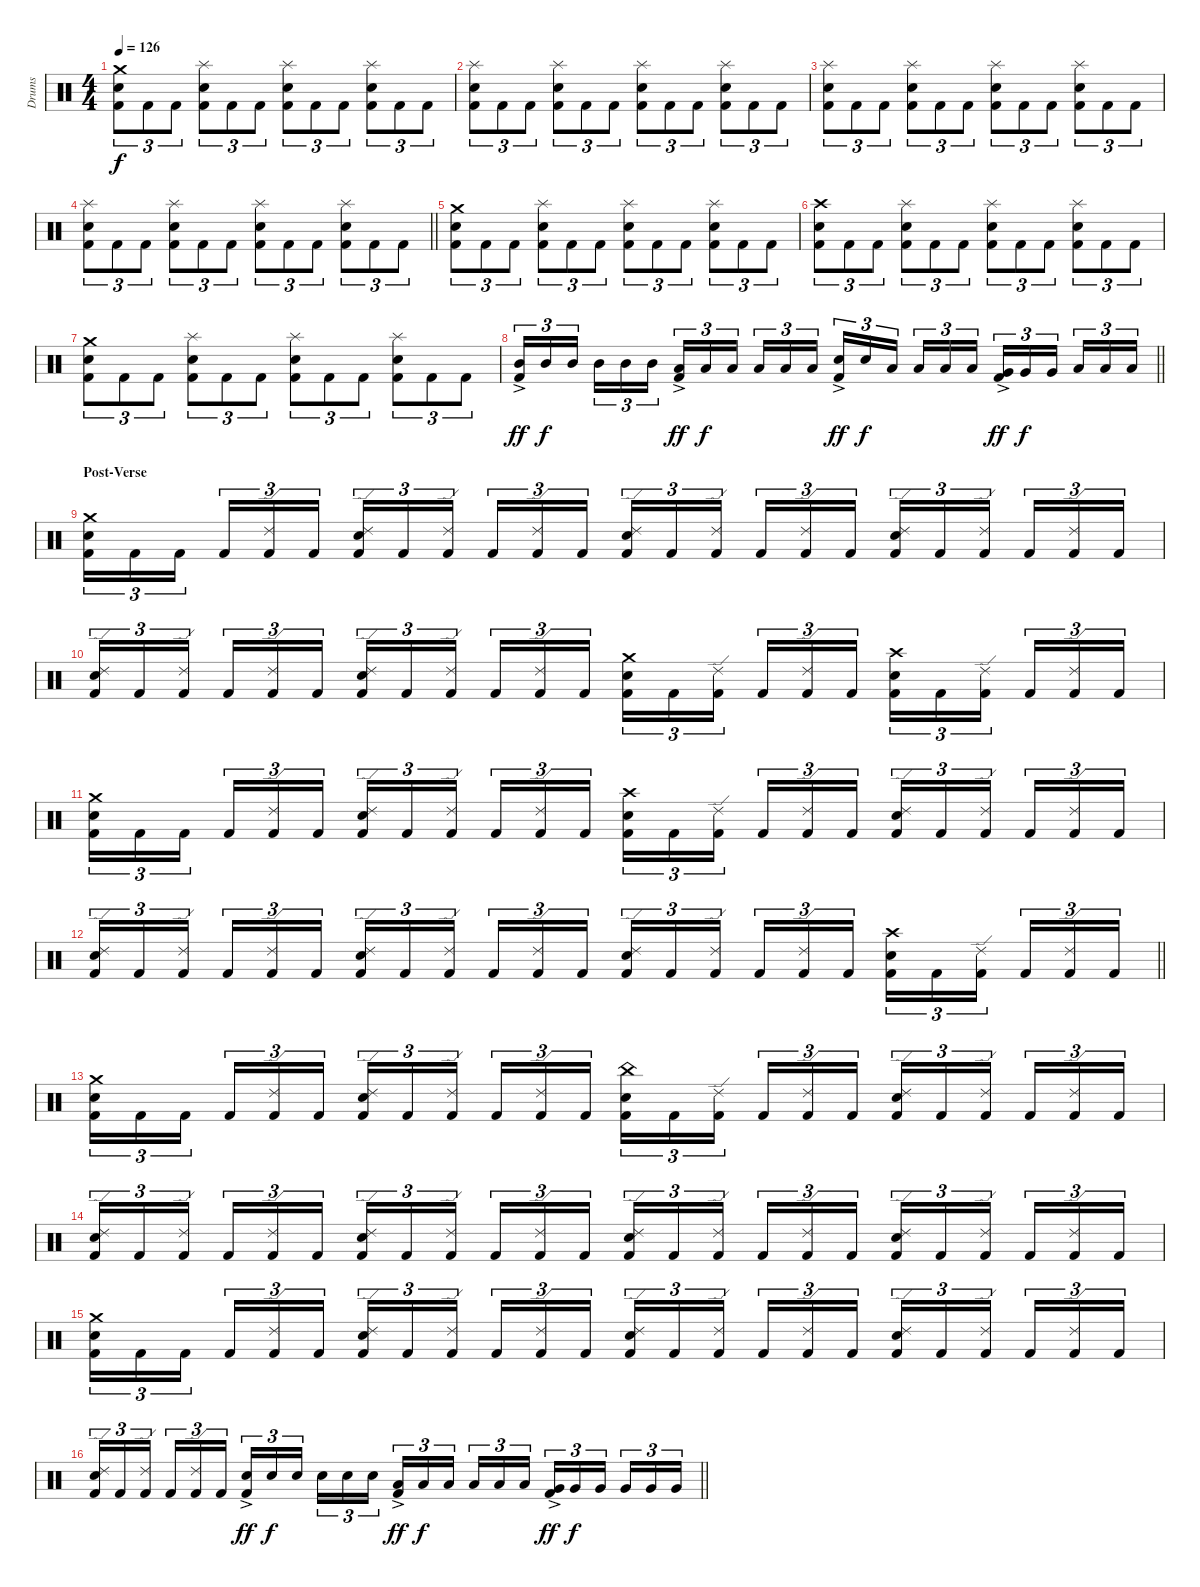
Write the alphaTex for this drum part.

\track ("Drums" "Drums") {instrument percussion}
\staff {score}
\articulation defaults
\ts (4 4)
\section ("" "")
\tempo 126
\clef neutral
\ks c
("Kick (hit) 2" "Snare (hit) 2" "Crash medium (hit)").8{tu (3 2) dy f} "Kick (hit) 2".8{tu (3 2)} "Kick (hit) 2".8{tu (3 2)} ("Kick (hit) 2" "Snare (hit) 2" "Splash (hit)").8{tu (3 2)} "Kick (hit) 2".8{tu (3 2)} "Kick (hit) 2".8{tu (3 2)} ("Kick (hit) 2" "Snare (hit) 2" "Splash (hit)").8{tu (3 2)} "Kick (hit) 2".8{tu (3 2)} "Kick (hit) 2".8{tu (3 2)} ("Kick (hit) 2" "Snare (hit) 2" "Splash (hit)").8{tu (3 2)} "Kick (hit) 2".8{tu (3 2)} "Kick (hit) 2".8{tu (3 2)} |
("Kick (hit) 2" "Snare (hit) 2" "Splash (hit)").8{tu (3 2)} "Kick (hit) 2".8{tu (3 2)} "Kick (hit) 2".8{tu (3 2)} ("Kick (hit) 2" "Snare (hit) 2" "Splash (hit)").8{tu (3 2)} "Kick (hit) 2".8{tu (3 2)} "Kick (hit) 2".8{tu (3 2)} ("Kick (hit) 2" "Snare (hit) 2" "Splash (hit)").8{tu (3 2)} "Kick (hit) 2".8{tu (3 2)} "Kick (hit) 2".8{tu (3 2)} ("Kick (hit) 2" "Snare (hit) 2" "Splash (hit)").8{tu (3 2)} "Kick (hit) 2".8{tu (3 2)} "Kick (hit) 2".8{tu (3 2)} |
("Kick (hit) 2" "Snare (hit) 2" "Splash (hit)").8{tu (3 2)} "Kick (hit) 2".8{tu (3 2)} "Kick (hit) 2".8{tu (3 2)} ("Kick (hit) 2" "Snare (hit) 2" "Splash (hit)").8{tu (3 2)} "Kick (hit) 2".8{tu (3 2)} "Kick (hit) 2".8{tu (3 2)} ("Kick (hit) 2" "Snare (hit) 2" "Splash (hit)").8{tu (3 2)} "Kick (hit) 2".8{tu (3 2)} "Kick (hit) 2".8{tu (3 2)} ("Kick (hit) 2" "Snare (hit) 2" "Splash (hit)").8{tu (3 2)} "Kick (hit) 2".8{tu (3 2)} "Kick (hit) 2".8{tu (3 2)} |
\barLineRight lightlight
("Kick (hit) 2" "Snare (hit) 2" "Splash (hit)").8{tu (3 2)} "Kick (hit) 2".8{tu (3 2)} "Kick (hit) 2".8{tu (3 2)} ("Kick (hit) 2" "Snare (hit) 2" "Splash (hit)").8{tu (3 2)} "Kick (hit) 2".8{tu (3 2)} "Kick (hit) 2".8{tu (3 2)} ("Kick (hit) 2" "Snare (hit) 2" "Splash (hit)").8{tu (3 2)} "Kick (hit) 2".8{tu (3 2)} "Kick (hit) 2".8{tu (3 2)} ("Kick (hit) 2" "Snare (hit) 2" "Splash (hit)").8{tu (3 2)} "Kick (hit) 2".8{tu (3 2)} "Kick (hit) 2".8{tu (3 2)} |
\section ("" "")
("Kick (hit) 2" "Snare (hit) 2" "Crash medium (hit)").8{tu (3 2)} "Kick (hit) 2".8{tu (3 2)} "Kick (hit) 2".8{tu (3 2)} ("Kick (hit) 2" "Snare (hit) 2" "Splash (hit)").8{tu (3 2)} "Kick (hit) 2".8{tu (3 2)} "Kick (hit) 2".8{tu (3 2)} ("Kick (hit) 2" "Snare (hit) 2" "Splash (hit)").8{tu (3 2)} "Kick (hit) 2".8{tu (3 2)} "Kick (hit) 2".8{tu (3 2)} ("Kick (hit) 2" "Snare (hit) 2" "Splash (hit)").8{tu (3 2)} "Kick (hit) 2".8{tu (3 2)} "Kick (hit) 2".8{tu (3 2)} |
("Kick (hit) 2" "Snare (hit) 2" "Crash high (hit)").8{tu (3 2)} "Kick (hit) 2".8{tu (3 2)} "Kick (hit) 2".8{tu (3 2)} ("Kick (hit) 2" "Snare (hit) 2" "Splash (hit)").8{tu (3 2)} "Kick (hit) 2".8{tu (3 2)} "Kick (hit) 2".8{tu (3 2)} ("Kick (hit) 2" "Snare (hit) 2" "Splash (hit)").8{tu (3 2)} "Kick (hit) 2".8{tu (3 2)} "Kick (hit) 2".8{tu (3 2)} ("Kick (hit) 2" "Snare (hit) 2" "Splash (hit)").8{tu (3 2)} "Kick (hit) 2".8{tu (3 2)} "Kick (hit) 2".8{tu (3 2)} |
("Kick (hit) 2" "Snare (hit) 2" "Crash medium (hit)").8{tu (3 2)} "Kick (hit) 2".8{tu (3 2)} "Kick (hit) 2".8{tu (3 2)} ("Kick (hit) 2" "Snare (hit) 2" "Splash (hit)").8{tu (3 2)} "Kick (hit) 2".8{tu (3 2)} "Kick (hit) 2".8{tu (3 2)} ("Kick (hit) 2" "Snare (hit) 2" "Splash (hit)").8{tu (3 2)} "Kick (hit) 2".8{tu (3 2)} "Kick (hit) 2".8{tu (3 2)} ("Kick (hit) 2" "Snare (hit) 2" "Splash (hit)").8{tu (3 2)} "Kick (hit) 2".8{tu (3 2)} "Kick (hit) 2".8{tu (3 2)} |
\barLineRight lightlight
("Kick (hit) 2"{ac} "Mid Tom (hit)").16{tu (3 2) dy ff} "Mid Tom (hit)".16{tu (3 2) dy f} "Mid Tom (hit)".16{tu (3 2) beam splitsecondary} "Mid Tom (hit)".16{tu (3 2)} "Mid Tom (hit)".16{tu (3 2)} "Mid Tom (hit)".16{tu (3 2)} ("Kick (hit) 2"{ac} "Low Tom (hit)").16{tu (3 2) dy ff} "Low Tom (hit)".16{tu (3 2) dy f} "Low Tom (hit)".16{tu (3 2) beam splitsecondary} "Low Tom (hit)".16{tu (3 2)} "Low Tom (hit)".16{tu (3 2)} "Low Tom (hit)".16{tu (3 2)} ("Kick (hit) 2"{ac} "Snare (hit) 2").16{tu (3 2) dy ff} "Snare (hit) 2".16{tu (3 2) dy f} "Low Tom (hit)".16{tu (3 2) beam splitsecondary} "Low Tom (hit)".16{tu (3 2)} "Low Tom (hit)".16{tu (3 2)} "Low Tom (hit)".16{tu (3 2)} ("Kick (hit) 2"{ac} "Very Low Tom (hit)").16{tu (3 2) dy ff} "Very Low Tom (hit)".16{tu (3 2) dy f} "Very Low Tom (hit)".16{tu (3 2) beam splitsecondary} "Low Floor Tom (hit)".16{tu (3 2)} "Low Floor Tom (hit)".16{tu (3 2)} "Low Floor Tom (hit)".16{tu (3 2)} |
\section ("" "Post-Verse")
("Kick (hit) 2" "Snare (hit) 2" "Crash medium (hit)").16{tu (3 2)} "Kick (hit) 2".16{tu (3 2)} "Kick (hit) 2".16{tu (3 2) beam splitsecondary} "Kick (hit) 2".16{tu (3 2)} ("Kick (hit) 2" "Ride (edge) 2").16{tu (3 2)} "Kick (hit) 2".16{tu (3 2)} ("Kick (hit) 2" "Snare (hit) 2" "Ride (edge) 2").16{tu (3 2)} "Kick (hit) 2".16{tu (3 2)} ("Kick (hit) 2" "Ride (edge) 2").16{tu (3 2) beam splitsecondary} "Kick (hit) 2".16{tu (3 2)} ("Kick (hit) 2" "Ride (edge) 2").16{tu (3 2)} "Kick (hit) 2".16{tu (3 2)} ("Kick (hit) 2" "Snare (hit) 2" "Ride (edge) 2").16{tu (3 2)} "Kick (hit) 2".16{tu (3 2)} ("Kick (hit) 2" "Ride (edge) 2").16{tu (3 2) beam splitsecondary} "Kick (hit) 2".16{tu (3 2)} ("Kick (hit) 2" "Ride (edge) 2").16{tu (3 2)} "Kick (hit) 2".16{tu (3 2)} ("Kick (hit) 2" "Snare (hit) 2" "Ride (edge) 2").16{tu (3 2)} "Kick (hit) 2".16{tu (3 2)} ("Kick (hit) 2" "Ride (edge) 2").16{tu (3 2) beam splitsecondary} "Kick (hit) 2".16{tu (3 2)} ("Kick (hit) 2" "Ride (edge) 2").16{tu (3 2)} "Kick (hit) 2".16{tu (3 2)} |
("Kick (hit) 2" "Snare (hit) 2" "Ride (edge) 2").16{tu (3 2)} "Kick (hit) 2".16{tu (3 2)} ("Kick (hit) 2" "Ride (edge) 2").16{tu (3 2) beam splitsecondary} "Kick (hit) 2".16{tu (3 2)} ("Kick (hit) 2" "Ride (edge) 2").16{tu (3 2)} "Kick (hit) 2".16{tu (3 2)} ("Kick (hit) 2" "Snare (hit) 2" "Ride (edge) 2").16{tu (3 2)} "Kick (hit) 2".16{tu (3 2)} ("Kick (hit) 2" "Ride (edge) 2").16{tu (3 2) beam splitsecondary} "Kick (hit) 2".16{tu (3 2)} ("Kick (hit) 2" "Ride (edge) 2").16{tu (3 2)} "Kick (hit) 2".16{tu (3 2)} ("Kick (hit) 2" "Snare (hit) 2" "Crash medium (hit)").16{tu (3 2)} "Kick (hit) 2".16{tu (3 2)} ("Kick (hit) 2" "Ride (edge) 2").16{tu (3 2) beam splitsecondary} "Kick (hit) 2".16{tu (3 2)} ("Kick (hit) 2" "Ride (edge) 2").16{tu (3 2)} "Kick (hit) 2".16{tu (3 2)} ("Kick (hit) 2" "Snare (hit) 2" "Crash high (hit)").16{tu (3 2)} "Kick (hit) 2".16{tu (3 2)} ("Kick (hit) 2" "Ride (edge) 2").16{tu (3 2) beam splitsecondary} "Kick (hit) 2".16{tu (3 2)} ("Kick (hit) 2" "Ride (edge) 2").16{tu (3 2)} "Kick (hit) 2".16{tu (3 2)} |
("Kick (hit) 2" "Snare (hit) 2" "Crash medium (hit)").16{tu (3 2)} "Kick (hit) 2".16{tu (3 2)} "Kick (hit) 2".16{tu (3 2) beam splitsecondary} "Kick (hit) 2".16{tu (3 2)} ("Kick (hit) 2" "Ride (edge) 2").16{tu (3 2)} "Kick (hit) 2".16{tu (3 2)} ("Kick (hit) 2" "Snare (hit) 2" "Ride (edge) 2").16{tu (3 2)} "Kick (hit) 2".16{tu (3 2)} ("Kick (hit) 2" "Ride (edge) 2").16{tu (3 2) beam splitsecondary} "Kick (hit) 2".16{tu (3 2)} ("Kick (hit) 2" "Ride (edge) 2").16{tu (3 2)} "Kick (hit) 2".16{tu (3 2)} ("Kick (hit) 2" "Snare (hit) 2" "Crash high (hit)").16{tu (3 2)} "Kick (hit) 2".16{tu (3 2)} ("Kick (hit) 2" "Ride (edge) 2").16{tu (3 2) beam splitsecondary} "Kick (hit) 2".16{tu (3 2)} ("Kick (hit) 2" "Ride (edge) 2").16{tu (3 2)} "Kick (hit) 2".16{tu (3 2)} ("Kick (hit) 2" "Snare (hit) 2" "Ride (edge) 2").16{tu (3 2)} "Kick (hit) 2".16{tu (3 2)} ("Kick (hit) 2" "Ride (edge) 2").16{tu (3 2) beam splitsecondary} "Kick (hit) 2".16{tu (3 2)} ("Kick (hit) 2" "Ride (edge) 2").16{tu (3 2)} "Kick (hit) 2".16{tu (3 2)} |
\barLineRight lightlight
("Kick (hit) 2" "Snare (hit) 2" "Ride (edge) 2").16{tu (3 2)} "Kick (hit) 2".16{tu (3 2)} ("Kick (hit) 2" "Ride (edge) 2").16{tu (3 2) beam splitsecondary} "Kick (hit) 2".16{tu (3 2)} ("Kick (hit) 2" "Ride (edge) 2").16{tu (3 2)} "Kick (hit) 2".16{tu (3 2)} ("Kick (hit) 2" "Snare (hit) 2" "Ride (edge) 2").16{tu (3 2)} "Kick (hit) 2".16{tu (3 2)} ("Kick (hit) 2" "Ride (edge) 2").16{tu (3 2) beam splitsecondary} "Kick (hit) 2".16{tu (3 2)} ("Kick (hit) 2" "Ride (edge) 2").16{tu (3 2)} "Kick (hit) 2".16{tu (3 2)} ("Kick (hit) 2" "Snare (hit) 2" "Ride (edge) 2").16{tu (3 2)} "Kick (hit) 2".16{tu (3 2)} ("Kick (hit) 2" "Ride (edge) 2").16{tu (3 2) beam splitsecondary} "Kick (hit) 2".16{tu (3 2)} ("Kick (hit) 2" "Ride (edge) 2").16{tu (3 2)} "Kick (hit) 2".16{tu (3 2)} ("Kick (hit) 2" "Snare (hit) 2" "Crash high (hit)").16{tu (3 2)} "Kick (hit) 2".16{tu (3 2)} ("Kick (hit) 2" "Ride (edge) 2").16{tu (3 2) beam splitsecondary} "Kick (hit) 2".16{tu (3 2)} ("Kick (hit) 2" "Ride (edge) 2").16{tu (3 2)} "Kick (hit) 2".16{tu (3 2)} |
\section ("" "")
("Kick (hit) 2" "Snare (hit) 2" "Crash medium (hit)").16{tu (3 2)} "Kick (hit) 2".16{tu (3 2)} "Kick (hit) 2".16{tu (3 2) beam splitsecondary} "Kick (hit) 2".16{tu (3 2)} ("Kick (hit) 2" "Ride (edge) 2").16{tu (3 2)} "Kick (hit) 2".16{tu (3 2)} ("Kick (hit) 2" "Snare (hit) 2" "Ride (edge) 2").16{tu (3 2)} "Kick (hit) 2".16{tu (3 2)} ("Kick (hit) 2" "Ride (edge) 2").16{tu (3 2) beam splitsecondary} "Kick (hit) 2".16{tu (3 2)} ("Kick (hit) 2" "Ride (edge) 2").16{tu (3 2)} "Kick (hit) 2".16{tu (3 2)} ("Kick (hit) 2" "Snare (hit) 2" "China (hit)").16{tu (3 2)} "Kick (hit) 2".16{tu (3 2)} ("Kick (hit) 2" "Ride (edge) 2").16{tu (3 2) beam splitsecondary} "Kick (hit) 2".16{tu (3 2)} ("Kick (hit) 2" "Ride (edge) 2").16{tu (3 2)} "Kick (hit) 2".16{tu (3 2)} ("Kick (hit) 2" "Snare (hit) 2" "Ride (edge) 2").16{tu (3 2)} "Kick (hit) 2".16{tu (3 2)} ("Kick (hit) 2" "Ride (edge) 2").16{tu (3 2) beam splitsecondary} "Kick (hit) 2".16{tu (3 2)} ("Kick (hit) 2" "Ride (edge) 2").16{tu (3 2)} "Kick (hit) 2".16{tu (3 2)} |
("Kick (hit) 2" "Snare (hit) 2" "Ride (edge) 2").16{tu (3 2)} "Kick (hit) 2".16{tu (3 2)} ("Kick (hit) 2" "Ride (edge) 2").16{tu (3 2) beam splitsecondary} "Kick (hit) 2".16{tu (3 2)} ("Kick (hit) 2" "Ride (edge) 2").16{tu (3 2)} "Kick (hit) 2".16{tu (3 2)} ("Kick (hit) 2" "Snare (hit) 2" "Ride (edge) 2").16{tu (3 2)} "Kick (hit) 2".16{tu (3 2)} ("Kick (hit) 2" "Ride (edge) 2").16{tu (3 2) beam splitsecondary} "Kick (hit) 2".16{tu (3 2)} ("Kick (hit) 2" "Ride (edge) 2").16{tu (3 2)} "Kick (hit) 2".16{tu (3 2)} ("Kick (hit) 2" "Snare (hit) 2" "Ride (edge) 2").16{tu (3 2)} "Kick (hit) 2".16{tu (3 2)} ("Kick (hit) 2" "Ride (edge) 2").16{tu (3 2) beam splitsecondary} "Kick (hit) 2".16{tu (3 2)} ("Kick (hit) 2" "Ride (edge) 2").16{tu (3 2)} "Kick (hit) 2".16{tu (3 2)} ("Kick (hit) 2" "Snare (hit) 2" "Ride (edge) 2").16{tu (3 2)} "Kick (hit) 2".16{tu (3 2)} ("Kick (hit) 2" "Ride (edge) 2").16{tu (3 2) beam splitsecondary} "Kick (hit) 2".16{tu (3 2)} ("Kick (hit) 2" "Ride (edge) 2").16{tu (3 2)} "Kick (hit) 2".16{tu (3 2)} |
("Kick (hit) 2" "Snare (hit) 2" "Crash medium (hit)").16{tu (3 2)} "Kick (hit) 2".16{tu (3 2)} "Kick (hit) 2".16{tu (3 2) beam splitsecondary} "Kick (hit) 2".16{tu (3 2)} ("Kick (hit) 2" "Ride (edge) 2").16{tu (3 2)} "Kick (hit) 2".16{tu (3 2)} ("Kick (hit) 2" "Snare (hit) 2" "Ride (edge) 2").16{tu (3 2)} "Kick (hit) 2".16{tu (3 2)} ("Kick (hit) 2" "Ride (edge) 2").16{tu (3 2) beam splitsecondary} "Kick (hit) 2".16{tu (3 2)} ("Kick (hit) 2" "Ride (edge) 2").16{tu (3 2)} "Kick (hit) 2".16{tu (3 2)} ("Kick (hit) 2" "Snare (hit) 2" "Ride (edge) 2").16{tu (3 2)} "Kick (hit) 2".16{tu (3 2)} ("Kick (hit) 2" "Ride (edge) 2").16{tu (3 2) beam splitsecondary} "Kick (hit) 2".16{tu (3 2)} ("Kick (hit) 2" "Ride (edge) 2").16{tu (3 2)} "Kick (hit) 2".16{tu (3 2)} ("Kick (hit) 2" "Snare (hit) 2" "Ride (edge) 2").16{tu (3 2)} "Kick (hit) 2".16{tu (3 2)} ("Kick (hit) 2" "Ride (edge) 2").16{tu (3 2) beam splitsecondary} "Kick (hit) 2".16{tu (3 2)} ("Kick (hit) 2" "Ride (edge) 2").16{tu (3 2)} "Kick (hit) 2".16{tu (3 2)} |
\barLineRight lightlight
("Kick (hit) 2" "Snare (hit) 2" "Ride (edge) 2").16{tu (3 2)} "Kick (hit) 2".16{tu (3 2)} ("Kick (hit) 2" "Ride (edge) 2").16{tu (3 2) beam splitsecondary} "Kick (hit) 2".16{tu (3 2)} ("Kick (hit) 2" "Ride (edge) 2").16{tu (3 2)} "Kick (hit) 2".16{tu (3 2)} ("Kick (hit) 2"{ac} "Snare (hit) 2").16{tu (3 2) dy ff} "Snare (hit) 2".16{tu (3 2) dy f} "Snare (hit) 2".16{tu (3 2) beam splitsecondary} "Snare (hit) 2".16{tu (3 2)} "Snare (hit) 2".16{tu (3 2)} "Snare (hit) 2".16{tu (3 2)} ("Kick (hit) 2"{ac} "Low Tom (hit)").16{tu (3 2) dy ff} "Low Tom (hit)".16{tu (3 2) dy f} "Low Tom (hit)".16{tu (3 2) beam splitsecondary} "Low Tom (hit)".16{tu (3 2)} "Low Tom (hit)".16{tu (3 2)} "Low Tom (hit)".16{tu (3 2)} ("Kick (hit) 2"{ac} "Very Low Tom (hit)").16{tu (3 2) dy ff} "Very Low Tom (hit)".16{tu (3 2) dy f} "Very Low Tom (hit)".16{tu (3 2) beam splitsecondary} "Very Low Tom (hit)".16{tu (3 2)} "Very Low Tom (hit)".16{tu (3 2)} "Very Low Tom (hit)".16{tu (3 2)}
